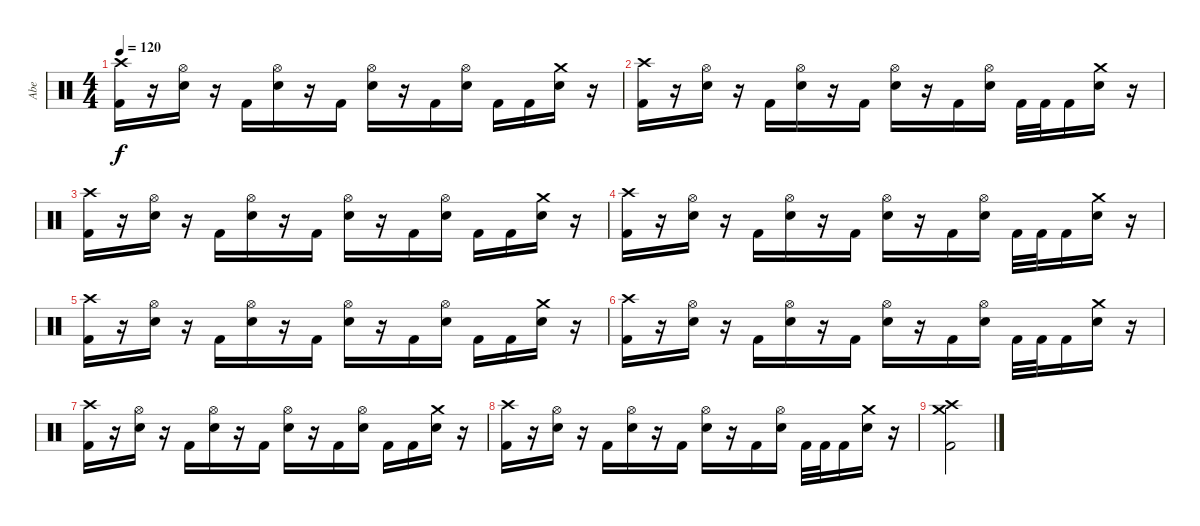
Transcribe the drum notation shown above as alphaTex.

\track ("Abe" "Abe") {instrument percussion}
\staff {score}
\articulation defaults
\ts (4 4)
\tempo 120
\clef neutral
\ks c
("Crash high (hit)" "Kick (hit) 2").16{dy f} r.16 ("Hi-Hat (open)" "Electric Snare (hit)").16 r.16 "Kick (hit) 2".16 ("Hi-Hat (open)" "Electric Snare (hit)").16 r.16 "Kick (hit) 2".16 ("Hi-Hat (open)" "Electric Snare (hit)").16 r.16 "Kick (hit) 2".16 ("Hi-Hat (open)" "Electric Snare (hit)").16 "Kick (hit) 2".16 "Kick (hit) 2".16 ("Crash medium (hit)" "Electric Snare (hit)").16 r.16 |
("Crash high (hit)" "Kick (hit) 2").16 r.16 ("Hi-Hat (open)" "Electric Snare (hit)").16 r.16 "Kick (hit) 2".16 ("Hi-Hat (open)" "Electric Snare (hit)").16 r.16 "Kick (hit) 2".16 ("Hi-Hat (open)" "Electric Snare (hit)").16 r.16 "Kick (hit) 2".16 ("Hi-Hat (open)" "Electric Snare (hit)").16 "Kick (hit) 2".32 "Kick (hit) 2".32 "Kick (hit) 2".16 ("Crash medium (hit)" "Electric Snare (hit)").16 r.16 |
("Crash high (hit)" "Kick (hit) 2").16 r.16 ("Hi-Hat (open)" "Electric Snare (hit)").16 r.16 "Kick (hit) 2".16 ("Hi-Hat (open)" "Electric Snare (hit)").16 r.16 "Kick (hit) 2".16 ("Hi-Hat (open)" "Electric Snare (hit)").16 r.16 "Kick (hit) 2".16 ("Hi-Hat (open)" "Electric Snare (hit)").16 "Kick (hit) 2".16 "Kick (hit) 2".16 ("Crash medium (hit)" "Electric Snare (hit)").16 r.16 |
("Crash high (hit)" "Kick (hit) 2").16 r.16 ("Hi-Hat (open)" "Electric Snare (hit)").16 r.16 "Kick (hit) 2".16 ("Hi-Hat (open)" "Electric Snare (hit)").16 r.16 "Kick (hit) 2".16 ("Hi-Hat (open)" "Electric Snare (hit)").16 r.16 "Kick (hit) 2".16 ("Hi-Hat (open)" "Electric Snare (hit)").16 "Kick (hit) 2".32 "Kick (hit) 2".32 "Kick (hit) 2".16 ("Crash medium (hit)" "Electric Snare (hit)").16 r.16 |
("Crash high (hit)" "Kick (hit) 2").16 r.16 ("Hi-Hat (open)" "Electric Snare (hit)").16 r.16 "Kick (hit) 2".16 ("Hi-Hat (open)" "Electric Snare (hit)").16 r.16 "Kick (hit) 2".16 ("Hi-Hat (open)" "Electric Snare (hit)").16 r.16 "Kick (hit) 2".16 ("Hi-Hat (open)" "Electric Snare (hit)").16 "Kick (hit) 2".16 "Kick (hit) 2".16 ("Crash medium (hit)" "Electric Snare (hit)").16 r.16 |
("Crash high (hit)" "Kick (hit) 2").16 r.16 ("Hi-Hat (open)" "Electric Snare (hit)").16 r.16 "Kick (hit) 2".16 ("Hi-Hat (open)" "Electric Snare (hit)").16 r.16 "Kick (hit) 2".16 ("Hi-Hat (open)" "Electric Snare (hit)").16 r.16 "Kick (hit) 2".16 ("Hi-Hat (open)" "Electric Snare (hit)").16 "Kick (hit) 2".32 "Kick (hit) 2".32 "Kick (hit) 2".16 ("Crash medium (hit)" "Electric Snare (hit)").16 r.16 |
("Crash high (hit)" "Kick (hit) 2").16 r.16 ("Hi-Hat (open)" "Electric Snare (hit)").16 r.16 "Kick (hit) 2".16 ("Hi-Hat (open)" "Electric Snare (hit)").16 r.16 "Kick (hit) 2".16 ("Hi-Hat (open)" "Electric Snare (hit)").16 r.16 "Kick (hit) 2".16 ("Hi-Hat (open)" "Electric Snare (hit)").16 "Kick (hit) 2".16 "Kick (hit) 2".16 ("Crash medium (hit)" "Electric Snare (hit)").16 r.16 |
("Crash high (hit)" "Kick (hit) 2").16 r.16 ("Hi-Hat (open)" "Electric Snare (hit)").16 r.16 "Kick (hit) 2".16 ("Hi-Hat (open)" "Electric Snare (hit)").16 r.16 "Kick (hit) 2".16 ("Hi-Hat (open)" "Electric Snare (hit)").16 r.16 "Kick (hit) 2".16 ("Hi-Hat (open)" "Electric Snare (hit)").16 "Kick (hit) 2".32 "Kick (hit) 2".32 "Kick (hit) 2".16 ("Crash medium (hit)" "Electric Snare (hit)").16 r.16 |
("Crash medium (hit)" "Crash high (hit)" "Kick (hit) 2").2
